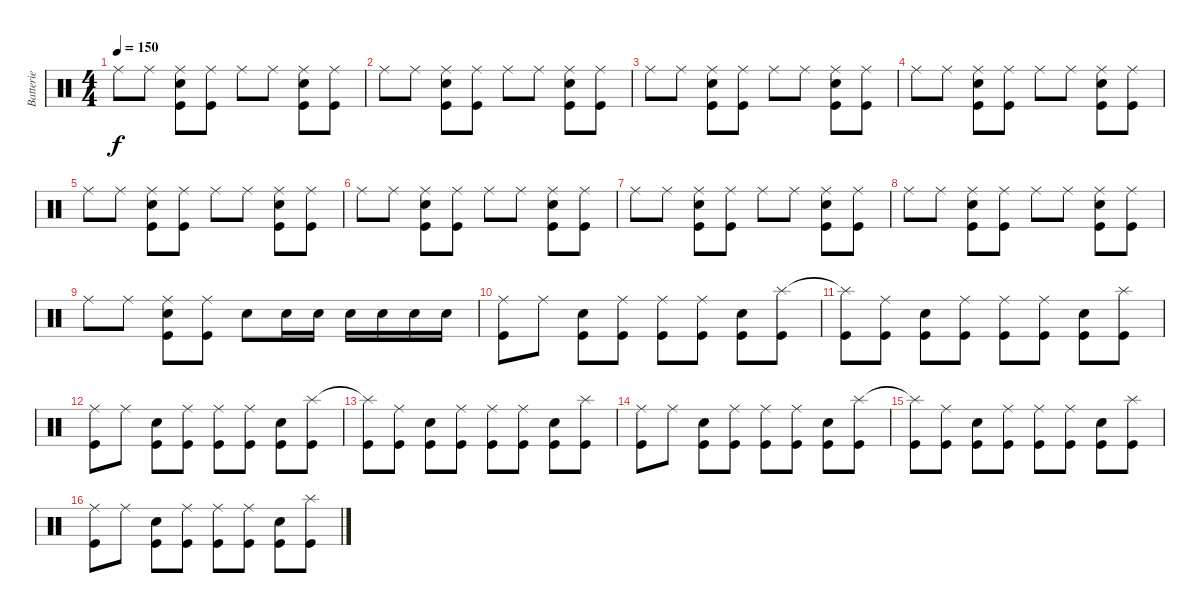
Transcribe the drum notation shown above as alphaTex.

\track ("Batterie" "Batterie") {instrument percussion}
\staff {score}
\articulation defaults
\ts (4 4)
\tempo 150
\clef neutral
\ks c "Ride (middle)".8{dy f} "Ride (middle)".8
("Ride (middle)" "Kick (hit)" "Electric Snare (hit)").8 ("Ride (middle)" "Kick (hit)").8 "Ride (middle)".8 "Ride (middle)".8 ("Ride (middle)" "Kick (hit)" "Electric Snare (hit)").8 ("Ride (middle)" "Kick (hit)").8 |
"Ride (middle)".8 "Ride (middle)".8 ("Ride (middle)" "Kick (hit)" "Electric Snare (hit)").8 ("Ride (middle)" "Kick (hit)").8 "Ride (middle)".8 "Ride (middle)".8 ("Ride (middle)" "Kick (hit)" "Electric Snare (hit)").8 ("Ride (middle)" "Kick (hit)").8 |
"Ride (middle)".8 "Ride (middle)".8 ("Ride (middle)" "Kick (hit)" "Electric Snare (hit)").8 ("Ride (middle)" "Kick (hit)").8 "Ride (middle)".8 "Ride (middle)".8 ("Ride (middle)" "Kick (hit)" "Electric Snare (hit)").8 ("Ride (middle)" "Kick (hit)").8 |
"Ride (middle)".8 "Ride (middle)".8 ("Ride (middle)" "Kick (hit)" "Electric Snare (hit)").8 ("Ride (middle)" "Kick (hit)").8 "Ride (middle)".8 "Ride (middle)".8 ("Ride (middle)" "Kick (hit)" "Electric Snare (hit)").8 ("Ride (middle)" "Kick (hit)").8 |
"Ride (middle)".8 "Ride (middle)".8 ("Ride (middle)" "Kick (hit)" "Electric Snare (hit)").8 ("Ride (middle)" "Kick (hit)").8 "Ride (middle)".8 "Ride (middle)".8 ("Ride (middle)" "Kick (hit)" "Electric Snare (hit)").8 ("Ride (middle)" "Kick (hit)").8 |
"Ride (middle)".8 "Ride (middle)".8 ("Ride (middle)" "Kick (hit)" "Electric Snare (hit)").8 ("Ride (middle)" "Kick (hit)").8 "Ride (middle)".8 "Ride (middle)".8 ("Ride (middle)" "Kick (hit)" "Electric Snare (hit)").8 ("Ride (middle)" "Kick (hit)").8 |
"Ride (middle)".8 "Ride (middle)".8 ("Ride (middle)" "Kick (hit)" "Electric Snare (hit)").8 ("Ride (middle)" "Kick (hit)").8 "Ride (middle)".8 "Ride (middle)".8 ("Ride (middle)" "Kick (hit)" "Electric Snare (hit)").8 ("Ride (middle)" "Kick (hit)").8 |
"Ride (middle)".8 "Ride (middle)".8 ("Ride (middle)" "Kick (hit)" "Electric Snare (hit)").8 ("Ride (middle)" "Kick (hit)").8 "Ride (middle)".8 "Ride (middle)".8 ("Ride (middle)" "Kick (hit)" "Electric Snare (hit)").8 ("Ride (middle)" "Kick (hit)").8 |
"Ride (middle)".8 "Ride (middle)".8 ("Ride (middle)" "Kick (hit)" "Electric Snare (hit)").8 ("Ride (middle)" "Kick (hit)").8 "Electric Snare (hit)".8 "Electric Snare (hit)".16 "Electric Snare (hit)".16 "Electric Snare (hit)".16 "Electric Snare (hit)".16 "Electric Snare (hit)".16 "Electric Snare (hit)".16 |
("Ride (middle)" "Kick (hit)").8 "Ride (middle)".8 ("Electric Snare (hit)" "Kick (hit)").8 ("Ride (middle)" "Kick (hit)").8 ("Ride (middle)" "Kick (hit)").8 ("Ride (middle)" "Kick (hit)").8 ("Electric Snare (hit)" "Kick (hit)").8 ("Splash (hit)" "Kick (hit)").8 |
("Splash (hit)"{t} "Kick (hit)").8 ("Ride (middle)" "Kick (hit)").8 ("Electric Snare (hit)" "Kick (hit)").8 ("Ride (middle)" "Kick (hit)").8 ("Ride (middle)" "Kick (hit)").8 ("Ride (middle)" "Kick (hit)").8 ("Electric Snare (hit)" "Kick (hit)").8 ("Splash (hit)" "Kick (hit)").8 |
("Ride (middle)" "Kick (hit)").8 "Ride (middle)".8 ("Electric Snare (hit)" "Kick (hit)").8 ("Ride (middle)" "Kick (hit)").8 ("Ride (middle)" "Kick (hit)").8 ("Ride (middle)" "Kick (hit)").8 ("Electric Snare (hit)" "Kick (hit)").8 ("Splash (hit)" "Kick (hit)").8 |
("Splash (hit)"{t} "Kick (hit)").8 ("Ride (middle)" "Kick (hit)").8 ("Electric Snare (hit)" "Kick (hit)").8 ("Ride (middle)" "Kick (hit)").8 ("Ride (middle)" "Kick (hit)").8 ("Ride (middle)" "Kick (hit)").8 ("Electric Snare (hit)" "Kick (hit)").8 ("Splash (hit)" "Kick (hit)").8 |
("Ride (middle)" "Kick (hit)").8 "Ride (middle)".8 ("Electric Snare (hit)" "Kick (hit)").8 ("Ride (middle)" "Kick (hit)").8 ("Ride (middle)" "Kick (hit)").8 ("Ride (middle)" "Kick (hit)").8 ("Electric Snare (hit)" "Kick (hit)").8 ("Splash (hit)" "Kick (hit)").8 |
("Splash (hit)"{t} "Kick (hit)").8 ("Ride (middle)" "Kick (hit)").8 ("Electric Snare (hit)" "Kick (hit)").8 ("Ride (middle)" "Kick (hit)").8 ("Ride (middle)" "Kick (hit)").8 ("Ride (middle)" "Kick (hit)").8 ("Electric Snare (hit)" "Kick (hit)").8 ("Splash (hit)" "Kick (hit)").8 |
("Ride (middle)" "Kick (hit)").8 "Ride (middle)".8 ("Electric Snare (hit)" "Kick (hit)").8 ("Ride (middle)" "Kick (hit)").8 ("Ride (middle)" "Kick (hit)").8 ("Ride (middle)" "Kick (hit)").8 ("Electric Snare (hit)" "Kick (hit)").8 ("Splash (hit)" "Kick (hit)").8
